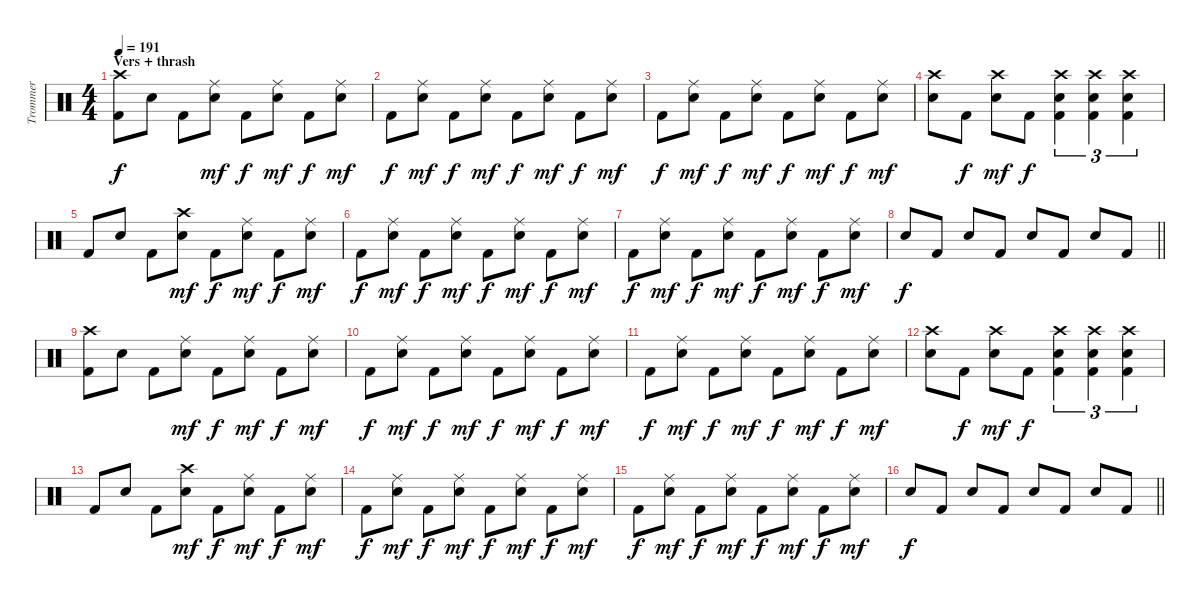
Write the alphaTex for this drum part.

\track ("Trommer" "Trommer") {instrument percussion}
\staff {score}
\articulation defaults
\ts (4 4)
\section ("" "Vers + thrash")
\tempo 191
\clef neutral
\ks c
("Crash high (hit)" "Kick (hit) 2").8{dy f} "Electric Snare (hit)".8 "Kick (hit) 2".8 ("Ride (middle)" "Electric Snare (hit)").8{dy mf} "Kick (hit) 2".8{dy f} ("Ride (middle)" "Electric Snare (hit)").8{dy mf} "Kick (hit) 2".8{dy f} ("Ride (middle)" "Electric Snare (hit)").8{dy mf} |
"Kick (hit) 2".8{dy f} ("Ride (middle)" "Electric Snare (hit)").8{dy mf} "Kick (hit) 2".8{dy f} ("Ride (middle)" "Electric Snare (hit)").8{dy mf} "Kick (hit) 2".8{dy f} ("Ride (middle)" "Electric Snare (hit)").8{dy mf} "Kick (hit) 2".8{dy f} ("Ride (middle)" "Electric Snare (hit)").8{dy mf} |
"Kick (hit) 2".8{dy f} ("Ride (middle)" "Electric Snare (hit)").8{dy mf} "Kick (hit) 2".8{dy f} ("Ride (middle)" "Electric Snare (hit)").8{dy mf} "Kick (hit) 2".8{dy f} ("Ride (middle)" "Electric Snare (hit)").8{dy mf} "Kick (hit) 2".8{dy f} ("Ride (middle)" "Electric Snare (hit)").8{dy mf} |
("Crash high (hit)" "Electric Snare (hit)").8 "Kick (hit) 2".8{dy f} ("Crash high (hit)" "Electric Snare (hit)").8{dy mf} "Kick (hit) 2".8{dy f} ("Crash high (hit)" "Electric Snare (hit)" "Kick (hit) 2").4{tu (3 2)} ("Crash high (hit)" "Electric Snare (hit)" "Kick (hit) 2").4{tu (3 2)} ("Crash high (hit)" "Electric Snare (hit)" "Kick (hit) 2").4{tu (3 2)} |
"Kick (hit) 2".8 "Electric Snare (hit)".8 "Kick (hit) 2".8 ("Crash high (hit)" "Electric Snare (hit)").8{dy mf} "Kick (hit) 2".8{dy f} ("Ride (middle)" "Electric Snare (hit)").8{dy mf} "Kick (hit) 2".8{dy f} ("Ride (middle)" "Electric Snare (hit)").8{dy mf} |
"Kick (hit) 2".8{dy f} ("Ride (middle)" "Electric Snare (hit)").8{dy mf} "Kick (hit) 2".8{dy f} ("Ride (middle)" "Electric Snare (hit)").8{dy mf} "Kick (hit) 2".8{dy f} ("Ride (middle)" "Electric Snare (hit)").8{dy mf} "Kick (hit) 2".8{dy f} ("Ride (middle)" "Electric Snare (hit)").8{dy mf} |
"Kick (hit) 2".8{dy f} ("Ride (middle)" "Electric Snare (hit)").8{dy mf} "Kick (hit) 2".8{dy f} ("Ride (middle)" "Electric Snare (hit)").8{dy mf} "Kick (hit) 2".8{dy f} ("Ride (middle)" "Electric Snare (hit)").8{dy mf} "Kick (hit) 2".8{dy f} ("Ride (middle)" "Electric Snare (hit)").8{dy mf} |
\barLineRight lightlight "Electric Snare (hit)".8{dy f} "Kick (hit) 2".8 "Electric Snare (hit)".8 "Kick (hit) 2".8 "Electric Snare (hit)".8 "Kick (hit) 2".8 "Electric Snare (hit)".8 "Kick (hit) 2".8
|
("Crash high (hit)" "Kick (hit) 2").8 "Electric Snare (hit)".8 "Kick (hit) 2".8 ("Ride (middle)" "Electric Snare (hit)").8{dy mf} "Kick (hit) 2".8{dy f} ("Ride (middle)" "Electric Snare (hit)").8{dy mf} "Kick (hit) 2".8{dy f} ("Ride (middle)" "Electric Snare (hit)").8{dy mf} |
"Kick (hit) 2".8{dy f} ("Ride (middle)" "Electric Snare (hit)").8{dy mf} "Kick (hit) 2".8{dy f} ("Ride (middle)" "Electric Snare (hit)").8{dy mf} "Kick (hit) 2".8{dy f} ("Ride (middle)" "Electric Snare (hit)").8{dy mf} "Kick (hit) 2".8{dy f} ("Ride (middle)" "Electric Snare (hit)").8{dy mf} |
"Kick (hit) 2".8{dy f} ("Ride (middle)" "Electric Snare (hit)").8{dy mf} "Kick (hit) 2".8{dy f} ("Ride (middle)" "Electric Snare (hit)").8{dy mf} "Kick (hit) 2".8{dy f} ("Ride (middle)" "Electric Snare (hit)").8{dy mf} "Kick (hit) 2".8{dy f} ("Ride (middle)" "Electric Snare (hit)").8{dy mf} |
("Crash high (hit)" "Electric Snare (hit)").8 "Kick (hit) 2".8{dy f} ("Crash high (hit)" "Electric Snare (hit)").8{dy mf} "Kick (hit) 2".8{dy f} ("Crash high (hit)" "Electric Snare (hit)" "Kick (hit) 2").4{tu (3 2)} ("Crash high (hit)" "Electric Snare (hit)" "Kick (hit) 2").4{tu (3 2)} ("Crash high (hit)" "Electric Snare (hit)" "Kick (hit) 2").4{tu (3 2)} |
"Kick (hit) 2".8 "Electric Snare (hit)".8 "Kick (hit) 2".8 ("Crash high (hit)" "Electric Snare (hit)").8{dy mf} "Kick (hit) 2".8{dy f} ("Ride (middle)" "Electric Snare (hit)").8{dy mf} "Kick (hit) 2".8{dy f} ("Ride (middle)" "Electric Snare (hit)").8{dy mf} |
"Kick (hit) 2".8{dy f} ("Ride (middle)" "Electric Snare (hit)").8{dy mf} "Kick (hit) 2".8{dy f} ("Ride (middle)" "Electric Snare (hit)").8{dy mf} "Kick (hit) 2".8{dy f} ("Ride (middle)" "Electric Snare (hit)").8{dy mf} "Kick (hit) 2".8{dy f} ("Ride (middle)" "Electric Snare (hit)").8{dy mf} |
"Kick (hit) 2".8{dy f} ("Ride (middle)" "Electric Snare (hit)").8{dy mf} "Kick (hit) 2".8{dy f} ("Ride (middle)" "Electric Snare (hit)").8{dy mf} "Kick (hit) 2".8{dy f} ("Ride (middle)" "Electric Snare (hit)").8{dy mf} "Kick (hit) 2".8{dy f} ("Ride (middle)" "Electric Snare (hit)").8{dy mf} |
\barLineRight lightlight "Electric Snare (hit)".8{dy f} "Kick (hit) 2".8 "Electric Snare (hit)".8 "Kick (hit) 2".8 "Electric Snare (hit)".8 "Kick (hit) 2".8 "Electric Snare (hit)".8 "Kick (hit) 2".8
